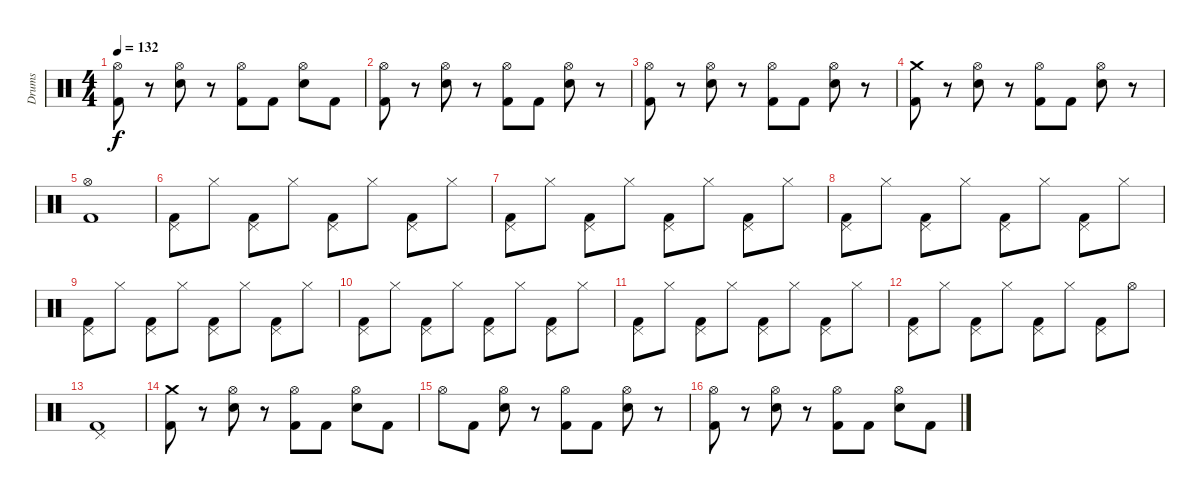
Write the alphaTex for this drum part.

\track ("Drums" "Drums") {instrument percussion}
\staff {score}
\articulation defaults
\ts (4 4)
\tempo 132
\clef neutral
\ks c
("Kick (hit) 2" "Hi-Hat (open)").8{dy f} r.8 ("Snare (hit) 2" "Hi-Hat (open)").8 r.8 ("Kick (hit) 2" "Hi-Hat (open)").8 "Kick (hit) 2".8 ("Snare (hit) 2" "Hi-Hat (open)").8 "Kick (hit) 2".8 |
("Kick (hit) 2" "Hi-Hat (open)").8 r.8 ("Snare (hit) 2" "Hi-Hat (open)").8 r.8 ("Kick (hit) 2" "Hi-Hat (open)").8 "Kick (hit) 2".8 ("Snare (hit) 2" "Hi-Hat (open)").8 r.8 |
("Kick (hit) 2" "Hi-Hat (open)").8 r.8 ("Snare (hit) 2" "Hi-Hat (open)").8 r.8 ("Kick (hit) 2" "Hi-Hat (open)").8 "Kick (hit) 2".8 ("Snare (hit) 2" "Hi-Hat (open)").8 r.8 |
("Kick (hit) 2" "Crash medium (hit)").8 r.8 ("Snare (hit) 2" "Hi-Hat (open)").8 r.8 ("Kick (hit) 2" "Hi-Hat (open)").8 "Kick (hit) 2".8 ("Snare (hit) 2" "Hi-Hat (open)").8 r.8 |
("Kick (hit) 2" "Hi-Hat (open)").1 |
("Kick (hit) 2" "Pedal Hi-Hat (hit)").8 "Hi-Hat (closed)".8 ("Kick (hit) 2" "Pedal Hi-Hat (hit)").8 "Hi-Hat (closed)".8 ("Kick (hit) 2" "Pedal Hi-Hat (hit)").8 "Hi-Hat (closed)".8 ("Kick (hit) 2" "Pedal Hi-Hat (hit)").8 "Hi-Hat (closed)".8 |
("Kick (hit) 2" "Pedal Hi-Hat (hit)").8 "Hi-Hat (closed)".8 ("Kick (hit) 2" "Pedal Hi-Hat (hit)").8 "Hi-Hat (closed)".8 ("Kick (hit) 2" "Pedal Hi-Hat (hit)").8 "Hi-Hat (closed)".8 ("Kick (hit) 2" "Pedal Hi-Hat (hit)").8 "Hi-Hat (closed)".8 |
("Kick (hit) 2" "Pedal Hi-Hat (hit)").8 "Hi-Hat (closed)".8 ("Kick (hit) 2" "Pedal Hi-Hat (hit)").8 "Hi-Hat (closed)".8 ("Kick (hit) 2" "Pedal Hi-Hat (hit)").8 "Hi-Hat (closed)".8 ("Kick (hit) 2" "Pedal Hi-Hat (hit)").8 "Hi-Hat (closed)".8 |
("Kick (hit) 2" "Pedal Hi-Hat (hit)").8 "Hi-Hat (closed)".8 ("Kick (hit) 2" "Pedal Hi-Hat (hit)").8 "Hi-Hat (closed)".8 ("Kick (hit) 2" "Pedal Hi-Hat (hit)").8 "Hi-Hat (closed)".8 ("Kick (hit) 2" "Pedal Hi-Hat (hit)").8 "Hi-Hat (closed)".8 |
("Kick (hit) 2" "Pedal Hi-Hat (hit)").8 "Hi-Hat (closed)".8 ("Kick (hit) 2" "Pedal Hi-Hat (hit)").8 "Hi-Hat (closed)".8 ("Kick (hit) 2" "Pedal Hi-Hat (hit)").8 "Hi-Hat (closed)".8 ("Kick (hit) 2" "Pedal Hi-Hat (hit)").8 "Hi-Hat (closed)".8 |
("Kick (hit) 2" "Pedal Hi-Hat (hit)").8 "Hi-Hat (closed)".8 ("Kick (hit) 2" "Pedal Hi-Hat (hit)").8 "Hi-Hat (closed)".8 ("Kick (hit) 2" "Pedal Hi-Hat (hit)").8 "Hi-Hat (closed)".8 ("Kick (hit) 2" "Pedal Hi-Hat (hit)").8 "Hi-Hat (closed)".8 |
("Kick (hit) 2" "Pedal Hi-Hat (hit)").8 "Hi-Hat (closed)".8 ("Kick (hit) 2" "Pedal Hi-Hat (hit)").8 "Hi-Hat (closed)".8 ("Kick (hit) 2" "Pedal Hi-Hat (hit)").8 "Hi-Hat (closed)".8 ("Kick (hit) 2" "Pedal Hi-Hat (hit)").8 "Hi-Hat (open)".8 |
("Kick (hit) 2" "Pedal Hi-Hat (hit)").1 |
("Kick (hit) 2" "Crash medium (hit)").8 r.8 ("Snare (hit) 2" "Hi-Hat (open)").8 r.8 ("Kick (hit) 2" "Hi-Hat (open)").8 "Kick (hit) 2".8 ("Snare (hit) 2" "Hi-Hat (open)").8 "Kick (hit) 2".8 |
"Hi-Hat (open)".8 "Kick (hit) 2".8 ("Snare (hit) 2" "Hi-Hat (open)").8 r.8 ("Kick (hit) 2" "Hi-Hat (open)").8 "Kick (hit) 2".8 ("Snare (hit) 2" "Hi-Hat (open)").8 r.8 |
("Kick (hit) 2" "Hi-Hat (open)").8 r.8 ("Snare (hit) 2" "Hi-Hat (open)").8 r.8 ("Kick (hit) 2" "Hi-Hat (open)").8 "Kick (hit) 2".8 ("Snare (hit) 2" "Hi-Hat (open)").8 "Kick (hit) 2".8
